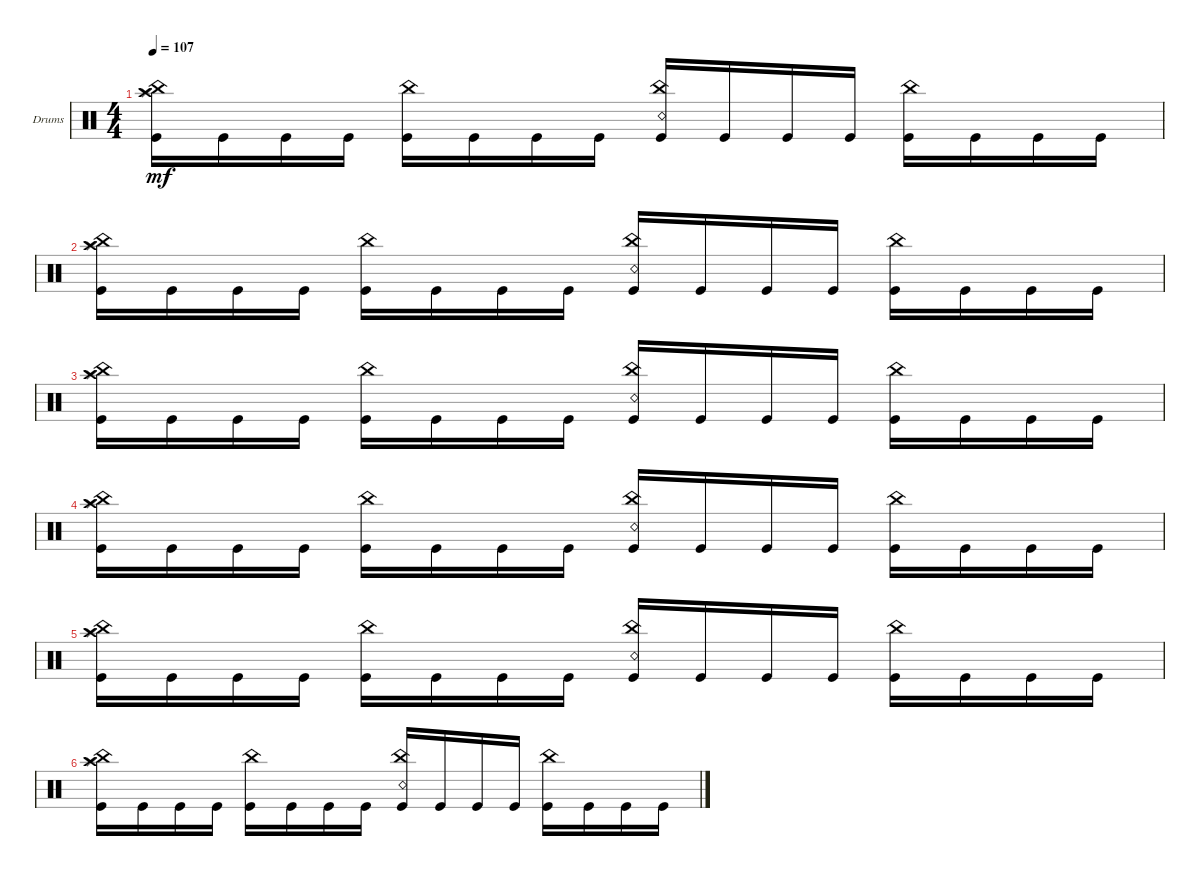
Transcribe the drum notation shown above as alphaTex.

\defaultSystemsLayout 4
\bracketExtendMode groupsimilarinstruments
\firstSystemTrackNameOrientation horizontal
\otherSystemsTrackNameOrientation horizontal
\track ("Drumkit" "Drums") {instrument percussion}
\staff {score}
\articulation defaults
\ts (4 4)
\tempo 107
\clef neutral
\scale
0.333333
\ks c
("Kick (hit)" "China (hit)" "Splash (hit)" "Crash high (hit)").16{dy mf} "Kick (hit)".16 "Kick (hit)".16 "Kick (hit)".16 ("Kick (hit)" "China (hit)").16 "Kick (hit)".16 "Kick (hit)".16 "Kick (hit)".16 ("Kick (hit)" "Snare (rim shot)" "China (hit)").16 "Kick (hit)".16 "Kick (hit)".16 "Kick (hit)".16 ("Kick (hit)" "China (hit)").16 "Kick (hit)".16 "Kick (hit)".16 "Kick (hit)".16 |
\scale
0.333333 ("Kick (hit)" "China (hit)" "Splash (hit)" "Crash high (hit)").16 "Kick (hit)".16 "Kick (hit)".16 "Kick (hit)".16 ("Kick (hit)" "China (hit)").16 "Kick (hit)".16 "Kick (hit)".16 "Kick (hit)".16 ("Kick (hit)" "Snare (rim shot)" "China (hit)").16 "Kick (hit)".16 "Kick (hit)".16 "Kick (hit)".16 ("Kick (hit)" "China (hit)").16 "Kick (hit)".16 "Kick (hit)".16 "Kick (hit)".16 |
\scale
0.333333 ("Kick (hit)" "China (hit)" "Splash (hit)" "Crash high (hit)").16 "Kick (hit)".16 "Kick (hit)".16 "Kick (hit)".16 ("Kick (hit)" "China (hit)").16 "Kick (hit)".16 "Kick (hit)".16 "Kick (hit)".16 ("Kick (hit)" "Snare (rim shot)" "China (hit)").16 "Kick (hit)".16 "Kick (hit)".16 "Kick (hit)".16 ("Kick (hit)" "China (hit)").16 "Kick (hit)".16 "Kick (hit)".16 "Kick (hit)".16 |
\scale
0.333333 ("Kick (hit)" "China (hit)" "Splash (hit)" "Crash high (hit)").16 "Kick (hit)".16 "Kick (hit)".16 "Kick (hit)".16 ("Kick (hit)" "China (hit)").16 "Kick (hit)".16 "Kick (hit)".16 "Kick (hit)".16 ("Kick (hit)" "Snare (rim shot)" "China (hit)").16 "Kick (hit)".16 "Kick (hit)".16 "Kick (hit)".16 ("Kick (hit)" "China (hit)").16 "Kick (hit)".16 "Kick (hit)".16 "Kick (hit)".16 |
\scale
0.333333 ("Kick (hit)" "China (hit)" "Splash (hit)" "Crash high (hit)").16 "Kick (hit)".16 "Kick (hit)".16 "Kick (hit)".16 ("Kick (hit)" "China (hit)").16 "Kick (hit)".16 "Kick (hit)".16 "Kick (hit)".16 ("Kick (hit)" "Snare (rim shot)" "China (hit)").16 "Kick (hit)".16 "Kick (hit)".16 "Kick (hit)".16 ("Kick (hit)" "China (hit)").16 "Kick (hit)".16 "Kick (hit)".16 "Kick (hit)".16 |
\scale
0.333333 ("Kick (hit)" "China (hit)" "Splash (hit)" "Crash high (hit)").16 "Kick (hit)".16 "Kick (hit)".16 "Kick (hit)".16 ("Kick (hit)" "China (hit)").16 "Kick (hit)".16 "Kick (hit)".16 "Kick (hit)".16 ("Kick (hit)" "Snare (rim shot)" "China (hit)").16 "Kick (hit)".16 "Kick (hit)".16 "Kick (hit)".16 ("Kick (hit)" "China (hit)").16 "Kick (hit)".16 "Kick (hit)".16 "Kick (hit)".16 |
\scale
0.333333 |
\scale
0.333333 |
\scale
0.333333 |
\scale
0.333333 |
\scale
0.333333 |
\scale
0.333333 |
\scale
0.333333 |
\scale
0.333333 |
\scale
0.333333 |
\scale
0.333333
